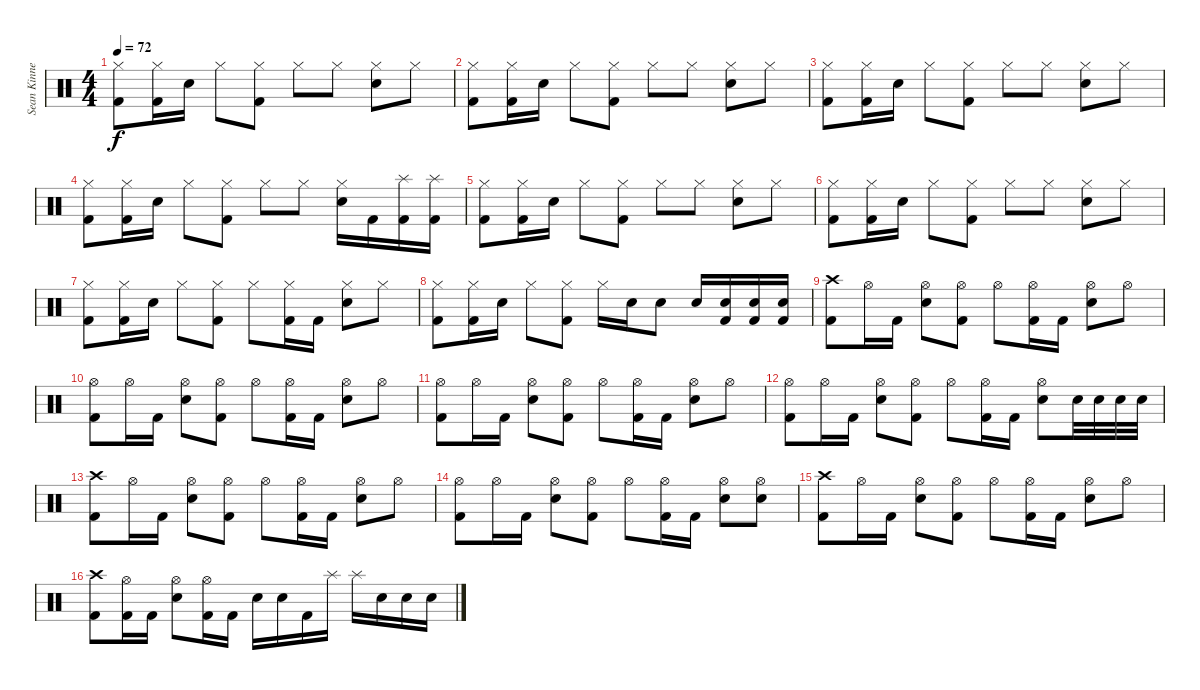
\track ("Sean Kinney - Drums" "Sean Kinne") {instrument percussion}
\staff {score}
\articulation defaults
\ts (4 4)
\tempo 72
\clef neutral
\ks c
("Hi-Hat (closed)" "Kick (hit) 2").8{dy f} ("Hi-Hat (closed)" "Kick (hit) 2").16 "Electric Snare (hit)".16 "Hi-Hat (closed)".8 ("Hi-Hat (closed)" "Kick (hit) 2").8 "Hi-Hat (closed)".8 "Hi-Hat (closed)".8 ("Hi-Hat (closed)" "Electric Snare (hit)").8 "Hi-Hat (closed)".8 |
("Hi-Hat (closed)" "Kick (hit) 2").8 ("Hi-Hat (closed)" "Kick (hit) 2").16 "Electric Snare (hit)".16 "Hi-Hat (closed)".8 ("Hi-Hat (closed)" "Kick (hit) 2").8 "Hi-Hat (closed)".8 "Hi-Hat (closed)".8 ("Hi-Hat (closed)" "Electric Snare (hit)").8 "Hi-Hat (closed)".8 |
("Hi-Hat (closed)" "Kick (hit) 2").8 ("Hi-Hat (closed)" "Kick (hit) 2").16 "Electric Snare (hit)".16 "Hi-Hat (closed)".8 ("Hi-Hat (closed)" "Kick (hit) 2").8 "Hi-Hat (closed)".8 "Hi-Hat (closed)".8 ("Hi-Hat (closed)" "Electric Snare (hit)").8 "Hi-Hat (closed)".8 |
("Hi-Hat (closed)" "Kick (hit) 2").8 ("Hi-Hat (closed)" "Kick (hit) 2").16 "Electric Snare (hit)".16 "Hi-Hat (closed)".8 ("Hi-Hat (closed)" "Kick (hit) 2").8 "Hi-Hat (closed)".8 "Hi-Hat (closed)".8 ("Hi-Hat (closed)" "Electric Snare (hit)").16 "Kick (hit) 2".16 ("Splash (hit)" "Kick (hit) 2").16 ("Splash (hit)" "Kick (hit) 2").16 |
("Hi-Hat (closed)" "Kick (hit) 2").8 ("Hi-Hat (closed)" "Kick (hit) 2").16 "Electric Snare (hit)".16 "Hi-Hat (closed)".8 ("Hi-Hat (closed)" "Kick (hit) 2").8 "Hi-Hat (closed)".8 "Hi-Hat (closed)".8 ("Hi-Hat (closed)" "Electric Snare (hit)").8 "Hi-Hat (closed)".8 |
("Hi-Hat (closed)" "Kick (hit) 2").8 ("Hi-Hat (closed)" "Kick (hit) 2").16 "Electric Snare (hit)".16 "Hi-Hat (closed)".8 ("Hi-Hat (closed)" "Kick (hit) 2").8 "Hi-Hat (closed)".8 "Hi-Hat (closed)".8 ("Hi-Hat (closed)" "Electric Snare (hit)").8 "Hi-Hat (closed)".8 |
("Hi-Hat (closed)" "Kick (hit) 2").8 ("Hi-Hat (closed)" "Kick (hit) 2").16 "Electric Snare (hit)".16 "Hi-Hat (closed)".8 ("Hi-Hat (closed)" "Kick (hit) 2").8 "Hi-Hat (closed)".8 ("Hi-Hat (closed)" "Kick (hit) 2").16 "Kick (hit) 2".16 ("Hi-Hat (closed)" "Electric Snare (hit)").8 "Hi-Hat (closed)".8 |
("Hi-Hat (closed)" "Kick (hit) 2").8 ("Hi-Hat (closed)" "Kick (hit) 2").16 "Electric Snare (hit)".16 "Hi-Hat (closed)".8 ("Hi-Hat (closed)" "Kick (hit) 2").8 "Hi-Hat (closed)".16 "Electric Snare (hit)".16 "Electric Snare (hit)".8 "Electric Snare (hit)".16 ("Electric Snare (hit)" "Kick (hit) 2").16 ("Electric Snare (hit)" "Kick (hit) 2").16 ("Electric Snare (hit)" "Kick (hit) 2").16 |
("Crash high (hit)" "Kick (hit) 2").8 "Hi-Hat (open)".16 "Kick (hit) 2".16 ("Hi-Hat (open)" "Electric Snare (hit)").8 ("Hi-Hat (open)" "Kick (hit) 2").8 "Hi-Hat (open)".8 ("Hi-Hat (open)" "Kick (hit) 2").16 "Kick (hit) 2".16 ("Hi-Hat (open)" "Electric Snare (hit)").8 "Hi-Hat (open)".8 |
("Hi-Hat (open)" "Kick (hit) 2").8 "Hi-Hat (open)".16 "Kick (hit) 2".16 ("Hi-Hat (open)" "Electric Snare (hit)").8 ("Hi-Hat (open)" "Kick (hit) 2").8 "Hi-Hat (open)".8 ("Hi-Hat (open)" "Kick (hit) 2").16 "Kick (hit) 2".16 ("Hi-Hat (open)" "Electric Snare (hit)").8 "Hi-Hat (open)".8 |
("Hi-Hat (open)" "Kick (hit) 2").8 "Hi-Hat (open)".16 "Kick (hit) 2".16 ("Hi-Hat (open)" "Electric Snare (hit)").8 ("Hi-Hat (open)" "Kick (hit) 2").8 "Hi-Hat (open)".8 ("Hi-Hat (open)" "Kick (hit) 2").16 "Kick (hit) 2".16 ("Hi-Hat (open)" "Electric Snare (hit)").8 "Hi-Hat (open)".8 |
("Hi-Hat (open)" "Kick (hit) 2").8 "Hi-Hat (open)".16 "Kick (hit) 2".16 ("Hi-Hat (open)" "Electric Snare (hit)").8 ("Hi-Hat (open)" "Kick (hit) 2").8 "Hi-Hat (open)".8 ("Hi-Hat (open)" "Kick (hit) 2").16 "Kick (hit) 2".16 ("Hi-Hat (open)" "Electric Snare (hit)").8 "Electric Snare (hit)".32 "Electric Snare (hit)".32 "Electric Snare (hit)".32 "Electric Snare (hit)".32 |
("Crash high (hit)" "Kick (hit) 2").8 "Hi-Hat (open)".16 "Kick (hit) 2".16 ("Hi-Hat (open)" "Electric Snare (hit)").8 ("Hi-Hat (open)" "Kick (hit) 2").8 "Hi-Hat (open)".8 ("Hi-Hat (open)" "Kick (hit) 2").16 "Kick (hit) 2".16 ("Hi-Hat (open)" "Electric Snare (hit)").8 "Hi-Hat (open)".8 |
("Hi-Hat (open)" "Kick (hit) 2").8 "Hi-Hat (open)".16 "Kick (hit) 2".16 ("Hi-Hat (open)" "Electric Snare (hit)").8 ("Hi-Hat (open)" "Kick (hit) 2").8 "Hi-Hat (open)".8 ("Hi-Hat (open)" "Kick (hit) 2").16 "Kick (hit) 2".16 ("Hi-Hat (open)" "Electric Snare (hit)").8 ("Hi-Hat (open)" "Electric Snare (hit)").8 |
("Crash high (hit)" "Kick (hit) 2").8 "Hi-Hat (open)".16 "Kick (hit) 2".16 ("Hi-Hat (open)" "Electric Snare (hit)").8 ("Hi-Hat (open)" "Kick (hit) 2").8 "Hi-Hat (open)".8 ("Hi-Hat (open)" "Kick (hit) 2").16 "Kick (hit) 2".16 ("Hi-Hat (open)" "Electric Snare (hit)").8 "Hi-Hat (open)".8 |
("Crash high (hit)" "Kick (hit) 2").8 ("Hi-Hat (open)" "Kick (hit) 2").16 "Kick (hit) 2".16 ("Hi-Hat (open)" "Electric Snare (hit)").8 ("Hi-Hat (open)" "Kick (hit) 2").16 "Kick (hit) 2".16 "Electric Snare (hit)".16 "Electric Snare (hit)".16 "Kick (hit) 2".16 "Splash (hit)".16 "Splash (hit)".16 "Electric Snare (hit)".16 "Electric Snare (hit)".16 "Electric Snare (hit)".16
